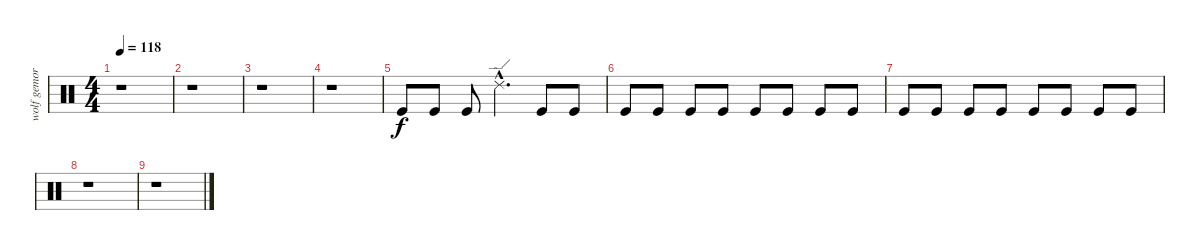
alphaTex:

\track ("wolf gemora" "wolf gemor") {instrument percussion}
\staff {score}
\articulation defaults
\ts (4 4)
\tempo 118
\clef neutral
\ks c
r.1{dy f} |
r.1 |
r.1 |
r.1 |
"Kick (hit)".8{volume 6} "Kick (hit)".8 "Kick (hit)".8 "Ride (edge) 2"{hac}.4{d volume 16} "Kick (hit)".8{volume 6} "Kick (hit)".8 |
"Kick (hit)".8 "Kick (hit)".8 "Kick (hit)".8 "Kick (hit)".8 "Kick (hit)".8 "Kick (hit)".8 "Kick (hit)".8 "Kick (hit)".8 |
"Kick (hit)".8 "Kick (hit)".8 "Kick (hit)".8 "Kick (hit)".8 "Kick (hit)".8 "Kick (hit)".8 "Kick (hit)".8 "Kick (hit)".8 |
r.1 |
r.1
